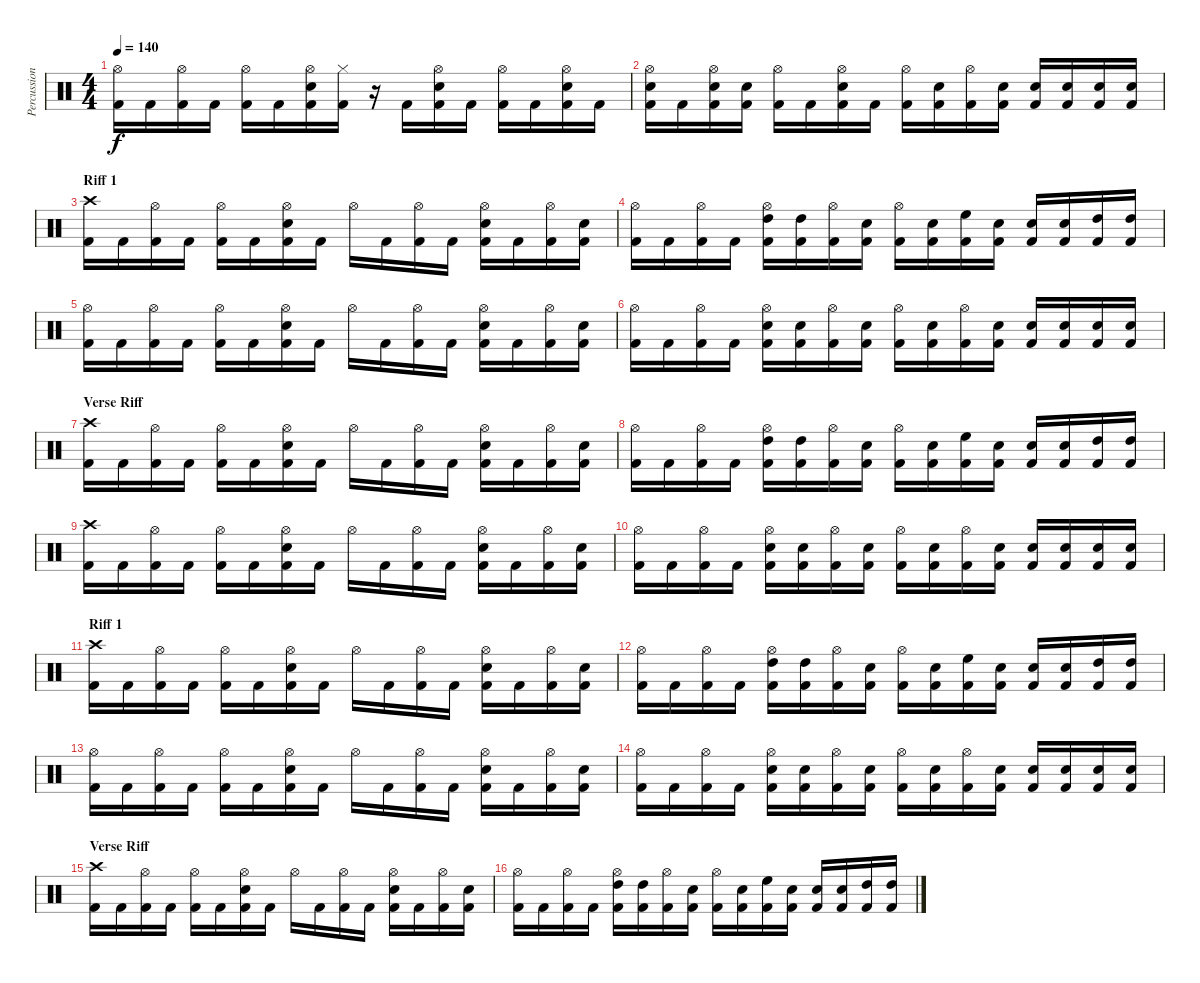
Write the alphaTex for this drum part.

\track ("Percussion" "Percussion") {instrument percussion}
\staff {score}
\articulation defaults
\ts (4 4)
\tempo 140
\clef neutral
\ks c
("Hi-Hat (open)" "Kick (hit) 2").16{dy f} "Kick (hit) 2".16 ("Hi-Hat (open)" "Kick (hit) 2").16 "Kick (hit) 2".16 ("Hi-Hat (open)" "Kick (hit) 2").16 "Kick (hit) 2".16 ("Hi-Hat (open)" "Electric Snare (hit)" "Kick (hit) 2").16 ("Hi-Hat (closed)" "Kick (hit) 2").16 r.16 "Kick (hit) 2".16 ("Hi-Hat (open)" "Electric Snare (hit)" "Kick (hit) 2").16 "Kick (hit) 2".16 ("Hi-Hat (open)" "Kick (hit) 2").16 "Kick (hit) 2".16 ("Hi-Hat (open)" "Electric Snare (hit)" "Kick (hit) 2").16 "Kick (hit) 2".16 |
("Hi-Hat (open)" "Electric Snare (hit)" "Kick (hit) 2").16 "Kick (hit) 2".16 ("Hi-Hat (open)" "Electric Snare (hit)" "Kick (hit) 2").16 ("Electric Snare (hit)" "Kick (hit) 2").16 ("Hi-Hat (open)" "Kick (hit) 2").16 "Kick (hit) 2".16 ("Hi-Hat (open)" "Electric Snare (hit)" "Kick (hit) 2").16 "Kick (hit) 2".16 ("Hi-Hat (open)" "Kick (hit) 2").16 ("Electric Snare (hit)" "Kick (hit) 2").16 ("Hi-Hat (open)" "Kick (hit) 2").16 ("Electric Snare (hit)" "Kick (hit) 2").16 ("Electric Snare (hit)" "Kick (hit) 2").16 ("Electric Snare (hit)" "Kick (hit) 2").16 ("Electric Snare (hit)" "Kick (hit) 2").16 ("Electric Snare (hit)" "Kick (hit) 2").16 |
\section ("" "Riff 1")
("Crash high (hit)" "Kick (hit) 2").16 "Kick (hit) 2".16 ("Hi-Hat (open)" "Kick (hit) 2").16 "Kick (hit) 2".16 ("Hi-Hat (open)" "Kick (hit) 2").16 "Kick (hit) 2".16 ("Hi-Hat (open)" "Electric Snare (hit)" "Kick (hit) 2").16 "Kick (hit) 2".16 "Hi-Hat (open)".16 "Kick (hit) 2".16 ("Hi-Hat (open)" "Kick (hit) 2").16 "Kick (hit) 2".16 ("Hi-Hat (open)" "Electric Snare (hit)" "Kick (hit) 2").16 "Kick (hit) 2".16 ("Hi-Hat (open)" "Kick (hit) 2").16 ("Electric Snare (hit)" "Kick (hit) 2").16 |
("Hi-Hat (open)" "Kick (hit) 2").16 "Kick (hit) 2".16 ("Hi-Hat (open)" "Kick (hit) 2").16 "Kick (hit) 2".16 ("High Tom (hit)" "Hi-Hat (open)" "Kick (hit) 2").16 ("High Tom (hit)" "Kick (hit) 2").16 ("Hi-Hat (open)" "Kick (hit) 2").16 ("Electric Snare (hit)" "Kick (hit) 2").16 ("Hi-Hat (open)" "Kick (hit) 2").16 ("Electric Snare (hit)" "Kick (hit) 2").16 ("High Floor Tom (hit)" "Kick (hit) 2").16 ("Electric Snare (hit)" "Kick (hit) 2").16 ("Electric Snare (hit)" "Kick (hit) 2").16 ("Electric Snare (hit)" "Kick (hit) 2").16 ("High Tom (hit)" "Kick (hit) 2").16 ("High Tom (hit)" "Kick (hit) 2").16 |
("Hi-Hat (open)" "Kick (hit) 2").16 "Kick (hit) 2".16 ("Hi-Hat (open)" "Kick (hit) 2").16 "Kick (hit) 2".16 ("Hi-Hat (open)" "Kick (hit) 2").16 "Kick (hit) 2".16 ("Hi-Hat (open)" "Electric Snare (hit)" "Kick (hit) 2").16 "Kick (hit) 2".16 "Hi-Hat (open)".16 "Kick (hit) 2".16 ("Hi-Hat (open)" "Kick (hit) 2").16 "Kick (hit) 2".16 ("Hi-Hat (open)" "Electric Snare (hit)" "Kick (hit) 2").16 "Kick (hit) 2".16 ("Hi-Hat (open)" "Kick (hit) 2").16 ("Electric Snare (hit)" "Kick (hit) 2").16 |
("Hi-Hat (open)" "Kick (hit) 2").16 "Kick (hit) 2".16 ("Hi-Hat (open)" "Kick (hit) 2").16 "Kick (hit) 2".16 ("Hi-Hat (open)" "Electric Snare (hit)" "Kick (hit) 2").16 ("Electric Snare (hit)" "Kick (hit) 2").16 ("Hi-Hat (open)" "Kick (hit) 2").16 ("Electric Snare (hit)" "Kick (hit) 2").16 ("Hi-Hat (open)" "Kick (hit) 2").16 ("Electric Snare (hit)" "Kick (hit) 2").16 ("Hi-Hat (open)" "Kick (hit) 2").16 ("Electric Snare (hit)" "Kick (hit) 2").16 ("Electric Snare (hit)" "Kick (hit) 2").16 ("Electric Snare (hit)" "Kick (hit) 2").16 ("Electric Snare (hit)" "Kick (hit) 2").16 ("Electric Snare (hit)" "Kick (hit) 2").16 |
\section ("" "Verse Riff")
("Crash high (hit)" "Kick (hit) 2").16 "Kick (hit) 2".16 ("Hi-Hat (open)" "Kick (hit) 2").16 "Kick (hit) 2".16 ("Hi-Hat (open)" "Kick (hit) 2").16 "Kick (hit) 2".16 ("Hi-Hat (open)" "Electric Snare (hit)" "Kick (hit) 2").16 "Kick (hit) 2".16 "Hi-Hat (open)".16 "Kick (hit) 2".16 ("Hi-Hat (open)" "Kick (hit) 2").16 "Kick (hit) 2".16 ("Hi-Hat (open)" "Electric Snare (hit)" "Kick (hit) 2").16 "Kick (hit) 2".16 ("Hi-Hat (open)" "Kick (hit) 2").16 ("Electric Snare (hit)" "Kick (hit) 2").16 |
("Hi-Hat (open)" "Kick (hit) 2").16 "Kick (hit) 2".16 ("Hi-Hat (open)" "Kick (hit) 2").16 "Kick (hit) 2".16 ("High Tom (hit)" "Hi-Hat (open)" "Kick (hit) 2").16 ("High Tom (hit)" "Kick (hit) 2").16 ("Hi-Hat (open)" "Kick (hit) 2").16 ("Electric Snare (hit)" "Kick (hit) 2").16 ("Hi-Hat (open)" "Kick (hit) 2").16 ("Electric Snare (hit)" "Kick (hit) 2").16 ("High Floor Tom (hit)" "Kick (hit) 2").16 ("Electric Snare (hit)" "Kick (hit) 2").16 ("Electric Snare (hit)" "Kick (hit) 2").16 ("Electric Snare (hit)" "Kick (hit) 2").16 ("High Tom (hit)" "Kick (hit) 2").16 ("High Tom (hit)" "Kick (hit) 2").16 |
("Crash high (hit)" "Kick (hit) 2").16 "Kick (hit) 2".16 ("Hi-Hat (open)" "Kick (hit) 2").16 "Kick (hit) 2".16 ("Hi-Hat (open)" "Kick (hit) 2").16 "Kick (hit) 2".16 ("Hi-Hat (open)" "Electric Snare (hit)" "Kick (hit) 2").16 "Kick (hit) 2".16 "Hi-Hat (open)".16 "Kick (hit) 2".16 ("Hi-Hat (open)" "Kick (hit) 2").16 "Kick (hit) 2".16 ("Hi-Hat (open)" "Electric Snare (hit)" "Kick (hit) 2").16 "Kick (hit) 2".16 ("Hi-Hat (open)" "Kick (hit) 2").16 ("Electric Snare (hit)" "Kick (hit) 2").16 |
("Hi-Hat (open)" "Kick (hit) 2").16 "Kick (hit) 2".16 ("Hi-Hat (open)" "Kick (hit) 2").16 "Kick (hit) 2".16 ("Hi-Hat (open)" "Electric Snare (hit)" "Kick (hit) 2").16 ("Electric Snare (hit)" "Kick (hit) 2").16 ("Hi-Hat (open)" "Kick (hit) 2").16 ("Electric Snare (hit)" "Kick (hit) 2").16 ("Hi-Hat (open)" "Kick (hit) 2").16 ("Electric Snare (hit)" "Kick (hit) 2").16 ("Hi-Hat (open)" "Kick (hit) 2").16 ("Electric Snare (hit)" "Kick (hit) 2").16 ("Electric Snare (hit)" "Kick (hit) 2").16 ("Electric Snare (hit)" "Kick (hit) 2").16 ("Electric Snare (hit)" "Kick (hit) 2").16 ("Electric Snare (hit)" "Kick (hit) 2").16 |
\section ("" "Riff 1")
("Crash high (hit)" "Kick (hit) 2").16 "Kick (hit) 2".16 ("Hi-Hat (open)" "Kick (hit) 2").16 "Kick (hit) 2".16 ("Hi-Hat (open)" "Kick (hit) 2").16 "Kick (hit) 2".16 ("Hi-Hat (open)" "Electric Snare (hit)" "Kick (hit) 2").16 "Kick (hit) 2".16 "Hi-Hat (open)".16 "Kick (hit) 2".16 ("Hi-Hat (open)" "Kick (hit) 2").16 "Kick (hit) 2".16 ("Hi-Hat (open)" "Electric Snare (hit)" "Kick (hit) 2").16 "Kick (hit) 2".16 ("Hi-Hat (open)" "Kick (hit) 2").16 ("Electric Snare (hit)" "Kick (hit) 2").16 |
("Hi-Hat (open)" "Kick (hit) 2").16 "Kick (hit) 2".16 ("Hi-Hat (open)" "Kick (hit) 2").16 "Kick (hit) 2".16 ("High Tom (hit)" "Hi-Hat (open)" "Kick (hit) 2").16 ("High Tom (hit)" "Kick (hit) 2").16 ("Hi-Hat (open)" "Kick (hit) 2").16 ("Electric Snare (hit)" "Kick (hit) 2").16 ("Hi-Hat (open)" "Kick (hit) 2").16 ("Electric Snare (hit)" "Kick (hit) 2").16 ("High Floor Tom (hit)" "Kick (hit) 2").16 ("Electric Snare (hit)" "Kick (hit) 2").16 ("Electric Snare (hit)" "Kick (hit) 2").16 ("Electric Snare (hit)" "Kick (hit) 2").16 ("High Tom (hit)" "Kick (hit) 2").16 ("High Tom (hit)" "Kick (hit) 2").16 |
("Hi-Hat (open)" "Kick (hit) 2").16 "Kick (hit) 2".16 ("Hi-Hat (open)" "Kick (hit) 2").16 "Kick (hit) 2".16 ("Hi-Hat (open)" "Kick (hit) 2").16 "Kick (hit) 2".16 ("Hi-Hat (open)" "Electric Snare (hit)" "Kick (hit) 2").16 "Kick (hit) 2".16 "Hi-Hat (open)".16 "Kick (hit) 2".16 ("Hi-Hat (open)" "Kick (hit) 2").16 "Kick (hit) 2".16 ("Hi-Hat (open)" "Electric Snare (hit)" "Kick (hit) 2").16 "Kick (hit) 2".16 ("Hi-Hat (open)" "Kick (hit) 2").16 ("Electric Snare (hit)" "Kick (hit) 2").16 |
("Hi-Hat (open)" "Kick (hit) 2").16 "Kick (hit) 2".16 ("Hi-Hat (open)" "Kick (hit) 2").16 "Kick (hit) 2".16 ("Hi-Hat (open)" "Electric Snare (hit)" "Kick (hit) 2").16 ("Electric Snare (hit)" "Kick (hit) 2").16 ("Hi-Hat (open)" "Kick (hit) 2").16 ("Electric Snare (hit)" "Kick (hit) 2").16 ("Hi-Hat (open)" "Kick (hit) 2").16 ("Electric Snare (hit)" "Kick (hit) 2").16 ("Hi-Hat (open)" "Kick (hit) 2").16 ("Electric Snare (hit)" "Kick (hit) 2").16 ("Electric Snare (hit)" "Kick (hit) 2").16 ("Electric Snare (hit)" "Kick (hit) 2").16 ("Electric Snare (hit)" "Kick (hit) 2").16 ("Electric Snare (hit)" "Kick (hit) 2").16 |
\section ("" "Verse Riff")
("Crash high (hit)" "Kick (hit) 2").16 "Kick (hit) 2".16 ("Hi-Hat (open)" "Kick (hit) 2").16 "Kick (hit) 2".16 ("Hi-Hat (open)" "Kick (hit) 2").16 "Kick (hit) 2".16 ("Hi-Hat (open)" "Electric Snare (hit)" "Kick (hit) 2").16 "Kick (hit) 2".16 "Hi-Hat (open)".16 "Kick (hit) 2".16 ("Hi-Hat (open)" "Kick (hit) 2").16 "Kick (hit) 2".16 ("Hi-Hat (open)" "Electric Snare (hit)" "Kick (hit) 2").16 "Kick (hit) 2".16 ("Hi-Hat (open)" "Kick (hit) 2").16 ("Electric Snare (hit)" "Kick (hit) 2").16 |
("Hi-Hat (open)" "Kick (hit) 2").16 "Kick (hit) 2".16 ("Hi-Hat (open)" "Kick (hit) 2").16 "Kick (hit) 2".16 ("High Tom (hit)" "Hi-Hat (open)" "Kick (hit) 2").16 ("High Tom (hit)" "Kick (hit) 2").16 ("Hi-Hat (open)" "Kick (hit) 2").16 ("Electric Snare (hit)" "Kick (hit) 2").16 ("Hi-Hat (open)" "Kick (hit) 2").16 ("Electric Snare (hit)" "Kick (hit) 2").16 ("High Floor Tom (hit)" "Kick (hit) 2").16 ("Electric Snare (hit)" "Kick (hit) 2").16 ("Electric Snare (hit)" "Kick (hit) 2").16 ("Electric Snare (hit)" "Kick (hit) 2").16 ("High Tom (hit)" "Kick (hit) 2").16 ("High Tom (hit)" "Kick (hit) 2").16
